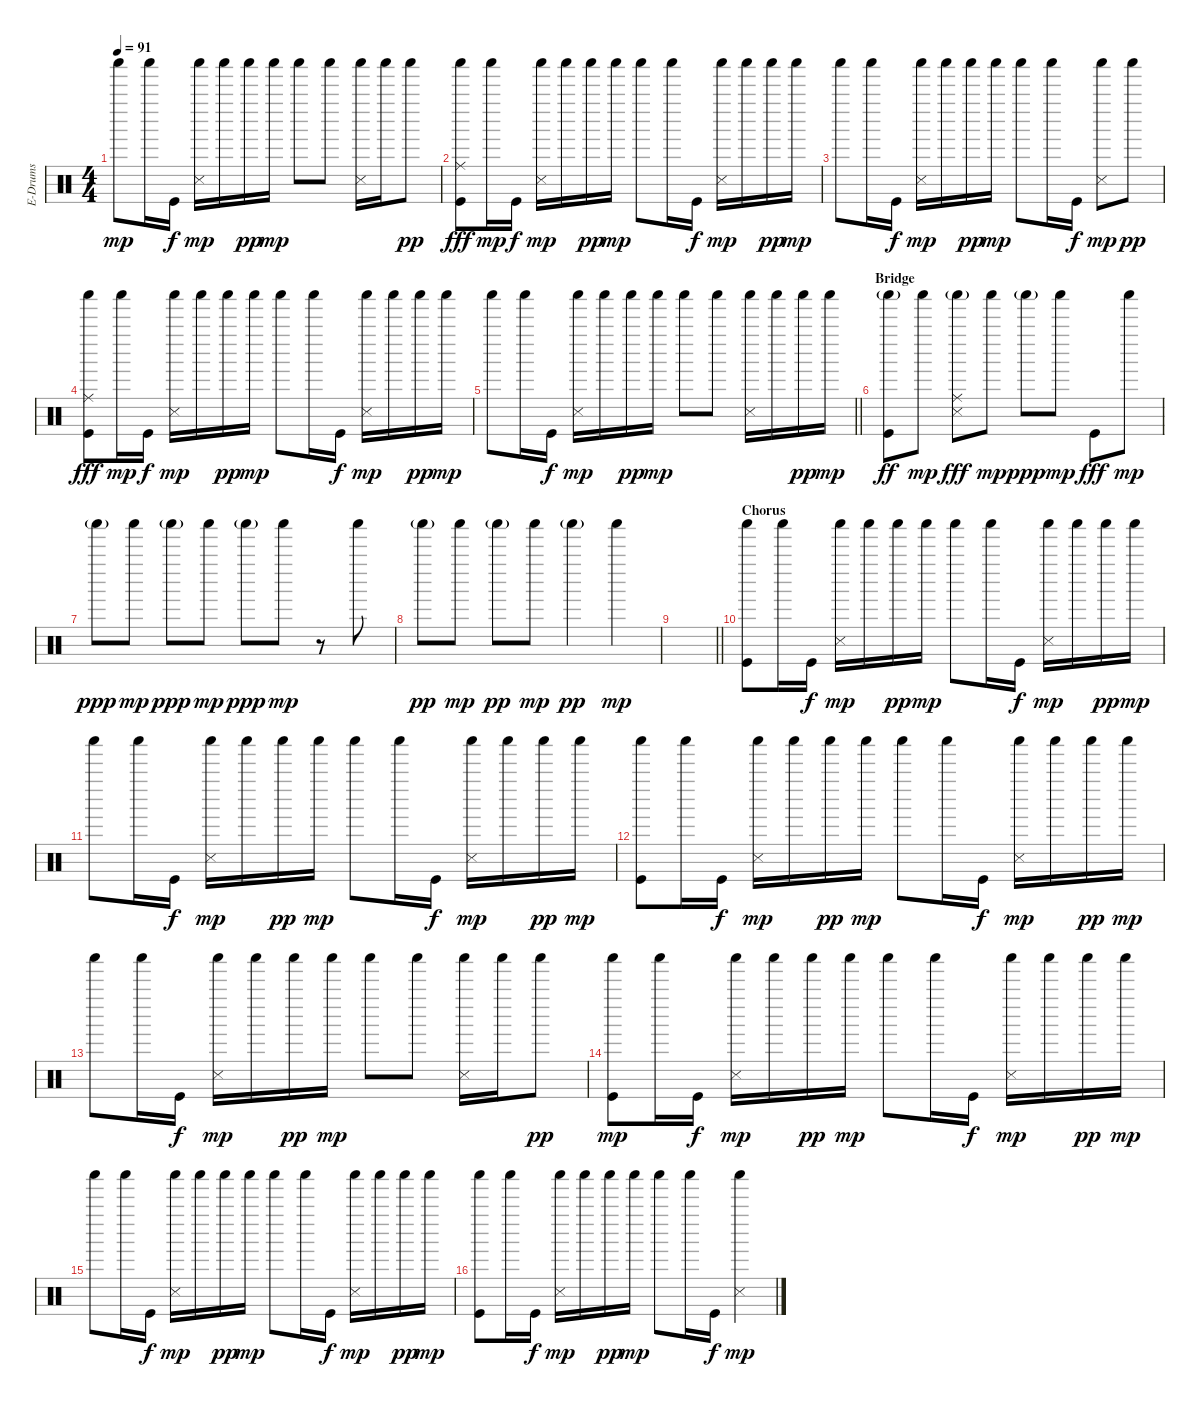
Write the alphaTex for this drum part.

\track ("E-Drums" "E-Drums") {instrument percussion}
\staff {score}
\articulation defaults
\ts (4 4)
\tempo 91
\clef neutral
\ks c "Shaker (hit)".8{dy mp} "Shaker (hit)".16 "Kick (hit)".16{dy f}
("Shaker (hit)" "Snare (side stick) 3").16{dy mp} "Shaker (hit)".16 "Shaker (hit)".16{dy pp} "Shaker (hit)".16{dy mp} "Shaker (hit)".8 "Shaker (hit)".8 ("Shaker (hit)" "Snare (side stick) 3").16 "Shaker (hit)".16 "Shaker (hit)".8{dy pp} |
("Shaker (hit)" "Ride (middle)" "Kick (hit)").8{dy fff} "Shaker (hit)".16{dy mp} "Kick (hit)".16{dy f} ("Shaker (hit)" "Snare (side stick) 3").16{dy mp} "Shaker (hit)".16 "Shaker (hit)".16{dy pp} "Shaker (hit)".16{dy mp} "Shaker (hit)".8 "Shaker (hit)".16 "Kick (hit)".16{dy f} ("Shaker (hit)" "Snare (side stick) 3").16{dy mp} "Shaker (hit)".16 "Shaker (hit)".16{dy pp} "Shaker (hit)".16{dy mp} |
"Shaker (hit)".8 "Shaker (hit)".16 "Kick (hit)".16{dy f} ("Shaker (hit)" "Snare (side stick) 3").16{dy mp} "Shaker (hit)".16 "Shaker (hit)".16{dy pp} "Shaker (hit)".16{dy mp} "Shaker (hit)".8 "Shaker (hit)".16 "Kick (hit)".16{dy f} ("Shaker (hit)" "Snare (side stick) 3").8{dy mp} "Shaker (hit)".8{dy pp} |
("Shaker (hit)" "Ride (middle)" "Kick (hit)").8{dy fff} "Shaker (hit)".16{dy mp} "Kick (hit)".16{dy f} ("Shaker (hit)" "Snare (side stick) 3").16{dy mp} "Shaker (hit)".16 "Shaker (hit)".16{dy pp} "Shaker (hit)".16{dy mp} "Shaker (hit)".8 "Shaker (hit)".16 "Kick (hit)".16{dy f} ("Shaker (hit)" "Snare (side stick) 3").16{dy mp} "Shaker (hit)".16 "Shaker (hit)".16{dy pp} "Shaker (hit)".16{dy mp} |
\barLineRight lightlight "Shaker (hit)".8 "Shaker (hit)".16 "Kick (hit)".16{dy f}
("Shaker (hit)" "Snare (side stick) 3").16{dy mp} "Shaker (hit)".16 "Shaker (hit)".16{dy pp} "Shaker (hit)".16{dy mp} "Shaker (hit)".8 "Shaker (hit)".8 ("Shaker (hit)" "Snare (side stick) 3").16 "Shaker (hit)".16 "Shaker (hit)".16{dy pp} "Shaker (hit)".16{dy mp} |
\section ("" "Bridge")
("Shaker (hit)"{g} "Kick (hit)").8{dy ff} "Shaker (hit)".8{dy mp} ("Shaker (hit)"{g} "Snare (side stick) 3" "Ride (middle)").8{dy fff} "Shaker (hit)".8{dy mp} "Shaker (hit)"{g}.8{dy ppp} "Shaker (hit)".8{dy mp} "Kick (hit)".8{dy fff} "Shaker (hit)".8{dy mp} |
"Shaker (hit)"{g}.8{dy ppp} "Shaker (hit)".8{dy mp} "Shaker (hit)"{g}.8{dy ppp} "Shaker (hit)".8{dy mp} "Shaker (hit)"{g}.8{dy ppp} "Shaker (hit)".8{dy mp} r.8 "Shaker (hit)".8 |
"Shaker (hit)"{g}.8{dy pp} "Shaker (hit)".8{dy mp} "Shaker (hit)"{g}.8{dy pp} "Shaker (hit)".8{dy mp} "Shaker (hit)"{g}.4{dy pp} "Shaker (hit)".4{dy mp} |
\barLineRight lightlight
|
\section ("" "Chorus")
("Shaker (hit)" "Kick (hit)").8 "Shaker (hit)".16 "Kick (hit)".16{dy f} ("Shaker (hit)" "Snare (side stick) 3").16{dy mp} "Shaker (hit)".16 "Shaker (hit)".16{dy pp} "Shaker (hit)".16{dy mp} "Shaker (hit)".8 "Shaker (hit)".16 "Kick (hit)".16{dy f} ("Shaker (hit)" "Snare (side stick) 3").16{dy mp} "Shaker (hit)".16 "Shaker (hit)".16{dy pp} "Shaker (hit)".16{dy mp} |
"Shaker (hit)".8 "Shaker (hit)".16 "Kick (hit)".16{dy f} ("Shaker (hit)" "Snare (side stick) 3").16{dy mp} "Shaker (hit)".16 "Shaker (hit)".16{dy pp} "Shaker (hit)".16{dy mp} "Shaker (hit)".8 "Shaker (hit)".16 "Kick (hit)".16{dy f} ("Shaker (hit)" "Snare (side stick) 3").16{dy mp} "Shaker (hit)".16 "Shaker (hit)".16{dy pp} "Shaker (hit)".16{dy mp} |
("Shaker (hit)" "Kick (hit)").8 "Shaker (hit)".16 "Kick (hit)".16{dy f} ("Shaker (hit)" "Snare (side stick) 3").16{dy mp} "Shaker (hit)".16 "Shaker (hit)".16{dy pp} "Shaker (hit)".16{dy mp} "Shaker (hit)".8 "Shaker (hit)".16 "Kick (hit)".16{dy f} ("Shaker (hit)" "Snare (side stick) 3").16{dy mp} "Shaker (hit)".16 "Shaker (hit)".16{dy pp} "Shaker (hit)".16{dy mp} |
"Shaker (hit)".8 "Shaker (hit)".16 "Kick (hit)".16{dy f} ("Shaker (hit)" "Snare (side stick) 3").16{dy mp} "Shaker (hit)".16 "Shaker (hit)".16{dy pp} "Shaker (hit)".16{dy mp} "Shaker (hit)".8 "Shaker (hit)".8 ("Shaker (hit)" "Snare (side stick) 3").16 "Shaker (hit)".16 "Shaker (hit)".8{dy pp} |
("Shaker (hit)" "Kick (hit)").8{dy mp} "Shaker (hit)".16 "Kick (hit)".16{dy f} ("Shaker (hit)" "Snare (side stick) 3").16{dy mp} "Shaker (hit)".16 "Shaker (hit)".16{dy pp} "Shaker (hit)".16{dy mp} "Shaker (hit)".8 "Shaker (hit)".16 "Kick (hit)".16{dy f} ("Shaker (hit)" "Snare (side stick) 3").16{dy mp} "Shaker (hit)".16 "Shaker (hit)".16{dy pp} "Shaker (hit)".16{dy mp} |
"Shaker (hit)".8 "Shaker (hit)".16 "Kick (hit)".16{dy f} ("Shaker (hit)" "Snare (side stick) 3").16{dy mp} "Shaker (hit)".16 "Shaker (hit)".16{dy pp} "Shaker (hit)".16{dy mp} "Shaker (hit)".8 "Shaker (hit)".16 "Kick (hit)".16{dy f} ("Shaker (hit)" "Snare (side stick) 3").16{dy mp} "Shaker (hit)".16 "Shaker (hit)".16{dy pp} "Shaker (hit)".16{dy mp} |
("Shaker (hit)" "Kick (hit)").8 "Shaker (hit)".16 "Kick (hit)".16{dy f} ("Shaker (hit)" "Snare (side stick) 3").16{dy mp} "Shaker (hit)".16 "Shaker (hit)".16{dy pp} "Shaker (hit)".16{dy mp} "Shaker (hit)".8 "Shaker (hit)".16 "Kick (hit)".16{dy f} ("Shaker (hit)" "Snare (side stick) 3").4{dy mp}
